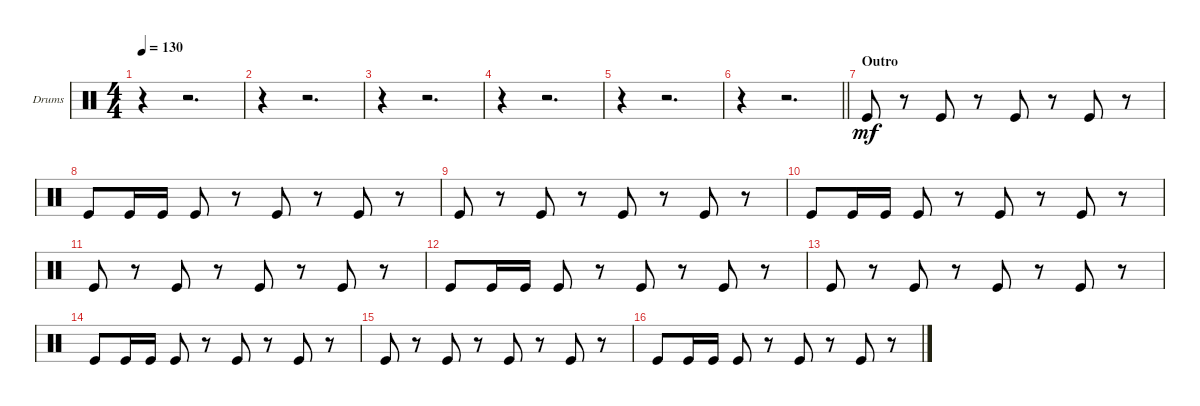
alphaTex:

\bracketExtendMode groupsimilarinstruments
\firstSystemTrackNameOrientation horizontal
\otherSystemsTrackNameOrientation horizontal
\track ("Drumkit" "Drums") {instrument percussion}
\staff {score}
\articulation defaults
\ts (4 4)
\tempo 130
\clef neutral
\ks c
r.4{dy mf} r.2{d} |
r.4 r.2{d} |
r.4 r.2{d} |
r.4 r.2{d} |
r.4 r.2{d} |
\barLineRight lightlight
r.4 r.2{d} |
\section ("" "Outro")
"Kick (hit)".8 r.8 "Kick (hit)".8 r.8 "Kick (hit)".8 r.8 "Kick (hit)".8 r.8 |
"Kick (hit)".8 "Kick (hit)".16 "Kick (hit)".16 "Kick (hit)".8 r.8 "Kick (hit)".8 r.8 "Kick (hit)".8 r.8 |
"Kick (hit)".8 r.8 "Kick (hit)".8 r.8 "Kick (hit)".8 r.8 "Kick (hit)".8 r.8 |
"Kick (hit)".8 "Kick (hit)".16 "Kick (hit)".16 "Kick (hit)".8 r.8 "Kick (hit)".8 r.8 "Kick (hit)".8 r.8 |
"Kick (hit)".8 r.8 "Kick (hit)".8 r.8 "Kick (hit)".8 r.8 "Kick (hit)".8 r.8 |
"Kick (hit)".8 "Kick (hit)".16 "Kick (hit)".16 "Kick (hit)".8 r.8 "Kick (hit)".8 r.8 "Kick (hit)".8 r.8 |
"Kick (hit)".8 r.8 "Kick (hit)".8 r.8 "Kick (hit)".8 r.8 "Kick (hit)".8 r.8 |
"Kick (hit)".8 "Kick (hit)".16 "Kick (hit)".16 "Kick (hit)".8 r.8 "Kick (hit)".8 r.8 "Kick (hit)".8 r.8 |
"Kick (hit)".8 r.8 "Kick (hit)".8 r.8 "Kick (hit)".8 r.8 "Kick (hit)".8 r.8 |
"Kick (hit)".8 "Kick (hit)".16 "Kick (hit)".16 "Kick (hit)".8 r.8 "Kick (hit)".8 r.8 "Kick (hit)".8 r.8
